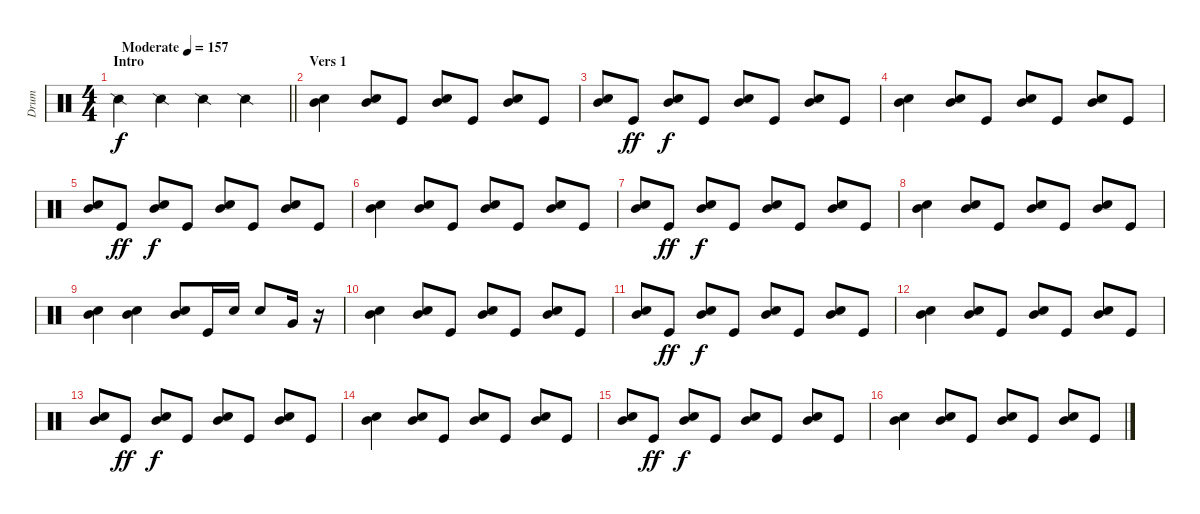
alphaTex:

\track ("Drum" "Drum") {instrument percussion}
\staff {score}
\articulation defaults
\ts (4 4)
\section ("" "Intro")
\tempo (157 "Moderate")
\clef neutral
\barLineRight lightlight
\ks c "Snare (side stick) 2".4{dy f} "Snare (side stick) 2".4 "Snare (side stick) 2".4 "Snare (side stick) 2".4
|
\section ("" "Vers 1")
("Mid Tom (hit)" "Snare (hit) 2").4 ("Mid Tom (hit)" "Snare (hit) 2").8 "Kick (hit)".8 ("Mid Tom (hit)" "Snare (hit) 2").8 "Kick (hit)".8 ("Mid Tom (hit)" "Snare (hit) 2").8 "Kick (hit)".8 |
("Mid Tom (hit)" "Snare (hit) 2").8 "Kick (hit)".8{dy ff} ("Mid Tom (hit)" "Snare (hit) 2").8{dy f} "Kick (hit)".8 ("Mid Tom (hit)" "Snare (hit) 2").8 "Kick (hit)".8 ("Mid Tom (hit)" "Snare (hit) 2").8 "Kick (hit)".8 |
("Mid Tom (hit)" "Snare (hit) 2").4 ("Mid Tom (hit)" "Snare (hit) 2").8 "Kick (hit)".8 ("Mid Tom (hit)" "Snare (hit) 2").8 "Kick (hit)".8 ("Mid Tom (hit)" "Snare (hit) 2").8 "Kick (hit)".8 |
("Mid Tom (hit)" "Snare (hit) 2").8 "Kick (hit)".8{dy ff} ("Mid Tom (hit)" "Snare (hit) 2").8{dy f} "Kick (hit)".8 ("Mid Tom (hit)" "Snare (hit) 2").8 "Kick (hit)".8 ("Mid Tom (hit)" "Snare (hit) 2").8 "Kick (hit)".8 |
("Mid Tom (hit)" "Snare (hit) 2").4 ("Mid Tom (hit)" "Snare (hit) 2").8 "Kick (hit)".8 ("Mid Tom (hit)" "Snare (hit) 2").8 "Kick (hit)".8 ("Mid Tom (hit)" "Snare (hit) 2").8 "Kick (hit)".8 |
("Mid Tom (hit)" "Snare (hit) 2").8 "Kick (hit)".8{dy ff} ("Mid Tom (hit)" "Snare (hit) 2").8{dy f} "Kick (hit)".8 ("Mid Tom (hit)" "Snare (hit) 2").8 "Kick (hit)".8 ("Mid Tom (hit)" "Snare (hit) 2").8 "Kick (hit)".8 |
("Mid Tom (hit)" "Snare (hit) 2").4 ("Mid Tom (hit)" "Snare (hit) 2").8 "Kick (hit)".8 ("Mid Tom (hit)" "Snare (hit) 2").8 "Kick (hit)".8 ("Mid Tom (hit)" "Snare (hit) 2").8 "Kick (hit)".8 |
("Mid Tom (hit)" "Snare (hit) 2").4 ("Mid Tom (hit)" "Snare (hit) 2").4 ("Mid Tom (hit)" "Snare (hit) 2").8 "Kick (hit)".16 "Snare (hit) 2".16 "Snare (hit) 2".8 "Very Low Tom (hit)".16 r.16 |
("Mid Tom (hit)" "Snare (hit) 2").4 ("Mid Tom (hit)" "Snare (hit) 2").8 "Kick (hit)".8 ("Mid Tom (hit)" "Snare (hit) 2").8 "Kick (hit)".8 ("Mid Tom (hit)" "Snare (hit) 2").8 "Kick (hit)".8 |
("Mid Tom (hit)" "Snare (hit) 2").8 "Kick (hit)".8{dy ff} ("Mid Tom (hit)" "Snare (hit) 2").8{dy f} "Kick (hit)".8 ("Mid Tom (hit)" "Snare (hit) 2").8 "Kick (hit)".8 ("Mid Tom (hit)" "Snare (hit) 2").8 "Kick (hit)".8 |
("Mid Tom (hit)" "Snare (hit) 2").4 ("Mid Tom (hit)" "Snare (hit) 2").8 "Kick (hit)".8 ("Mid Tom (hit)" "Snare (hit) 2").8 "Kick (hit)".8 ("Mid Tom (hit)" "Snare (hit) 2").8 "Kick (hit)".8 |
("Mid Tom (hit)" "Snare (hit) 2").8 "Kick (hit)".8{dy ff} ("Mid Tom (hit)" "Snare (hit) 2").8{dy f} "Kick (hit)".8 ("Mid Tom (hit)" "Snare (hit) 2").8 "Kick (hit)".8 ("Mid Tom (hit)" "Snare (hit) 2").8 "Kick (hit)".8 |
("Mid Tom (hit)" "Snare (hit) 2").4 ("Mid Tom (hit)" "Snare (hit) 2").8 "Kick (hit)".8 ("Mid Tom (hit)" "Snare (hit) 2").8 "Kick (hit)".8 ("Mid Tom (hit)" "Snare (hit) 2").8 "Kick (hit)".8 |
("Mid Tom (hit)" "Snare (hit) 2").8 "Kick (hit)".8{dy ff} ("Mid Tom (hit)" "Snare (hit) 2").8{dy f} "Kick (hit)".8 ("Mid Tom (hit)" "Snare (hit) 2").8 "Kick (hit)".8 ("Mid Tom (hit)" "Snare (hit) 2").8 "Kick (hit)".8 |
("Mid Tom (hit)" "Snare (hit) 2").4 ("Mid Tom (hit)" "Snare (hit) 2").8 "Kick (hit)".8 ("Mid Tom (hit)" "Snare (hit) 2").8 "Kick (hit)".8 ("Mid Tom (hit)" "Snare (hit) 2").8 "Kick (hit)".8
